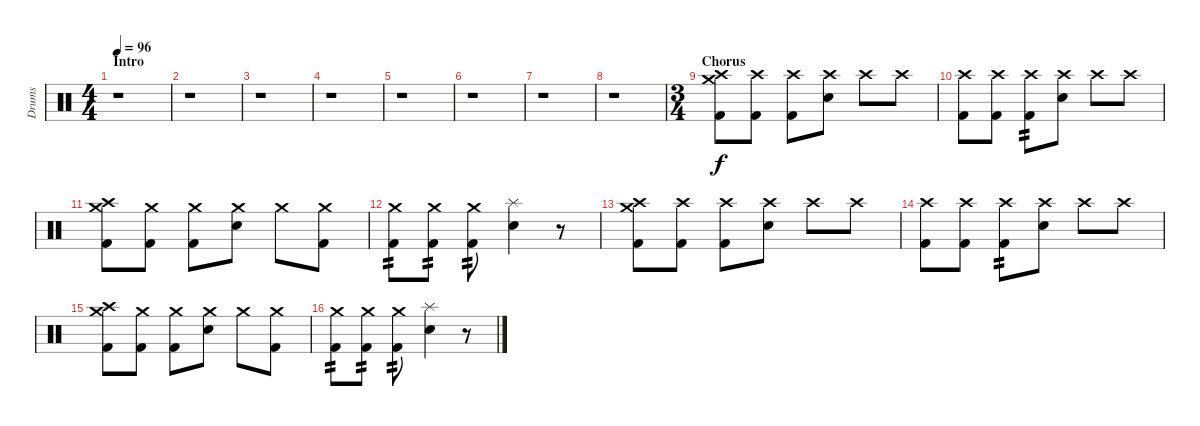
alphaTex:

\track ("Drums" "Drums") {instrument percussion}
\staff {score}
\articulation defaults
\ts (4 4)
\section ("" "Intro")
\tempo 96
\clef neutral
\ks c
r.1{dy f} |
r.1 |
r.1 |
r.1 |
r.1 |
r.1 |
r.1 |
r.1 |
\ts (3 4)
\section ("" "Chorus")
("Crash high (hit)" "Crash medium (hit)" "Kick (hit) 2").8 ("Crash high (hit)" "Kick (hit) 2").8 ("Crash high (hit)" "Kick (hit) 2").8 ("Crash high (hit)" "Snare (hit) 2").8 "Crash high (hit)".8 "Crash high (hit)".8 |
("Crash high (hit)" "Kick (hit) 2").8 ("Crash high (hit)" "Kick (hit) 2").8 ("Crash high (hit)" "Kick (hit) 2").8{tp 2} ("Crash high (hit)" "Snare (hit) 2").8 "Crash high (hit)".8 "Crash high (hit)".8 |
("Crash medium (hit)" "Crash high (hit)" "Kick (hit) 2").8 ("Crash medium (hit)" "Kick (hit) 2").8 ("Crash medium (hit)" "Kick (hit) 2").8 ("Crash medium (hit)" "Snare (hit) 2").8 "Crash medium (hit)".8 ("Crash medium (hit)" "Kick (hit) 2").8 |
("Crash medium (hit)" "Kick (hit) 2").8{tp 2} ("Crash medium (hit)" "Kick (hit) 2").8{tp 2} ("Crash medium (hit)" "Kick (hit) 2").8{tp 2} ("Splash (hit)" "Snare (hit) 2").4 r.8 |
("Crash high (hit)" "Crash medium (hit)" "Kick (hit) 2").8 ("Crash high (hit)" "Kick (hit) 2").8 ("Crash high (hit)" "Kick (hit) 2").8 ("Crash high (hit)" "Snare (hit) 2").8 "Crash high (hit)".8 "Crash high (hit)".8 |
("Crash high (hit)" "Kick (hit) 2").8 ("Crash high (hit)" "Kick (hit) 2").8 ("Crash high (hit)" "Kick (hit) 2").8{tp 2} ("Crash high (hit)" "Snare (hit) 2").8 "Crash high (hit)".8 "Crash high (hit)".8 |
("Crash medium (hit)" "Crash high (hit)" "Kick (hit) 2").8 ("Crash medium (hit)" "Kick (hit) 2").8 ("Crash medium (hit)" "Kick (hit) 2").8 ("Crash medium (hit)" "Snare (hit) 2").8 "Crash medium (hit)".8 ("Crash medium (hit)" "Kick (hit) 2").8 |
("Crash medium (hit)" "Kick (hit) 2").8{tp 2} ("Crash medium (hit)" "Kick (hit) 2").8{tp 2} ("Crash medium (hit)" "Kick (hit) 2").8{tp 2} ("Splash (hit)" "Snare (hit) 2").4 r.8
